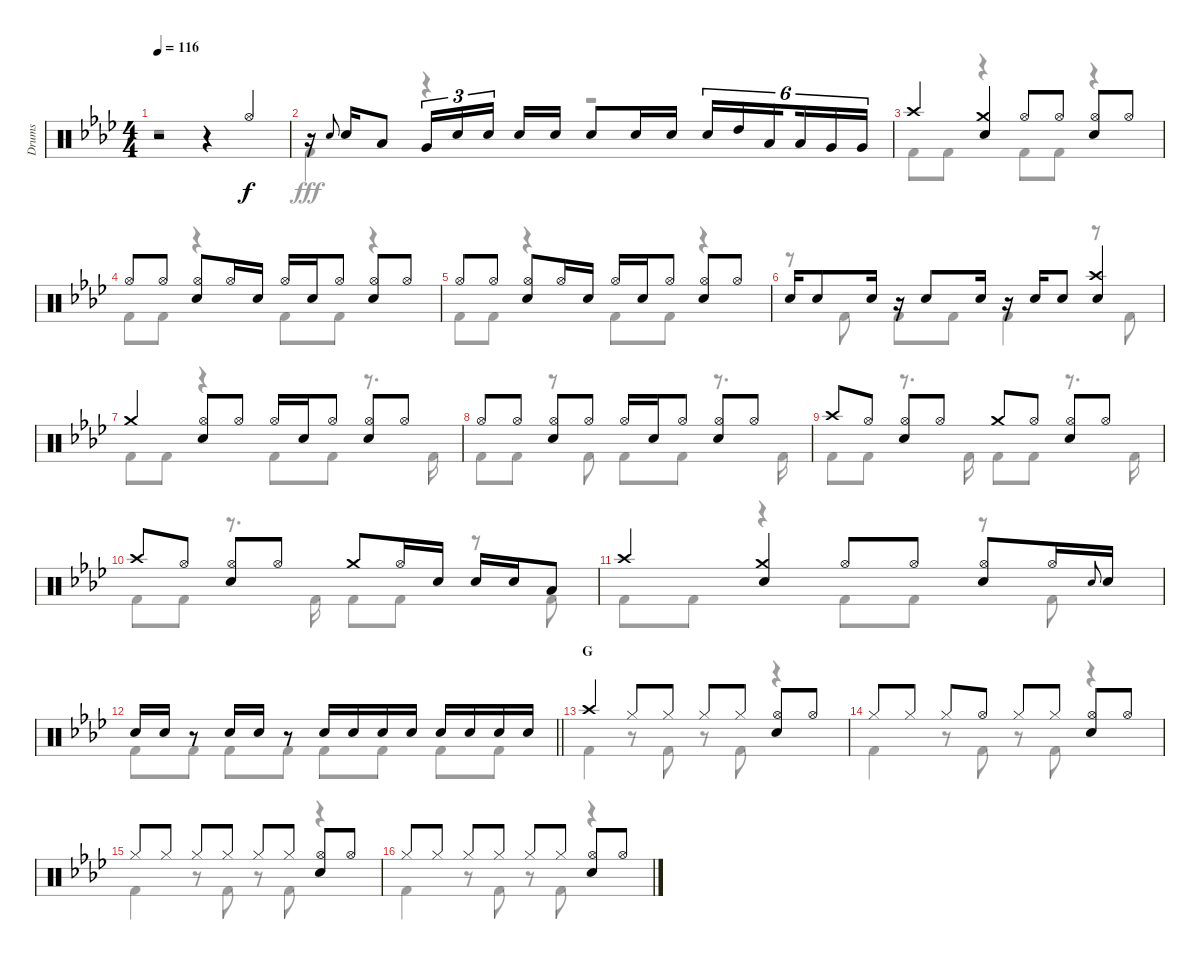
\track ("Drums" "Drums") {instrument percussion}
\staff {score}
\articulation defaults
\voice
\ts (4 4)
\tempo 116
\clef neutral
\ks ab
r.2{dy f} r.4 "Hi-Hat (open)".4 |
r.16 "Snare (hit) 2".8{gr onbeat} "Snare (hit) 2".16 "Low Tom (hit)".8 "Very Low Tom (hit)".16{tu (3 2)} "Snare (hit) 2".16{tu (3 2)} "Snare (hit) 2".16{tu (3 2) beam splitsecondary} "Snare (hit) 2".16 "Snare (hit) 2".16 "Snare (hit) 2".8 "Snare (hit) 2".16 "Snare (hit) 2".16 "Snare (hit) 2".16{tu (6 4)} "High Tom (hit)".16{tu (6 4)} "Low Tom (hit)".16{tu (6 4) beam splitsecondary} "Low Tom (hit)".16{tu (6 4)} "Very Low Tom (hit)".16{tu (6 4)} "Very Low Tom (hit)".16{tu (6 4)} |
"Crash high (hit)".4 ("Crash medium (hit)" "Snare (hit) 2").4 "Hi-Hat (open)".8 "Hi-Hat (open)".8 ("Hi-Hat (open)" "Snare (hit) 2").8 "Hi-Hat (open)".8 |
"Hi-Hat (open)".8 "Hi-Hat (open)".8 ("Hi-Hat (open)" "Snare (hit) 2").8 "Hi-Hat (open)".16 "Snare (hit) 2".16 "Hi-Hat (open)".16 "Snare (hit) 2".16 "Hi-Hat (open)".8 ("Hi-Hat (open)" "Snare (hit) 2").8 "Hi-Hat (open)".8 |
"Hi-Hat (open)".8 "Hi-Hat (open)".8 ("Hi-Hat (open)" "Snare (hit) 2").8 "Hi-Hat (open)".16 "Snare (hit) 2".16 "Hi-Hat (open)".16 "Snare (hit) 2".16 "Hi-Hat (open)".8 ("Hi-Hat (open)" "Snare (hit) 2").8 "Hi-Hat (open)".8 |
"Snare (hit) 2".16 "Snare (hit) 2".8 "Snare (hit) 2".16 r.16 "Snare (hit) 2".8 "Snare (hit) 2".16 r.16 "Snare (hit) 2".16 "Snare (hit) 2".8 ("Crash high (hit)" "Snare (hit) 2").4 |
"Crash medium (hit)".4 ("Hi-Hat (open)" "Snare (hit) 2").8 "Hi-Hat (open)".8 "Hi-Hat (open)".16 "Snare (hit) 2".16 "Hi-Hat (open)".8 ("Hi-Hat (open)" "Snare (hit) 2").8 "Hi-Hat (open)".8 |
"Hi-Hat (open)".8 "Hi-Hat (open)".8 ("Hi-Hat (open)" "Snare (hit) 2").8 "Hi-Hat (open)".8 "Hi-Hat (open)".16 "Snare (hit) 2".16 "Hi-Hat (open)".8 ("Hi-Hat (open)" "Snare (hit) 2").8 "Hi-Hat (open)".8 |
"Crash high (hit)".8 "Hi-Hat (open)".8 ("Hi-Hat (open)" "Snare (hit) 2").8 "Hi-Hat (open)".8 "Crash medium (hit)".8 "Hi-Hat (open)".8 ("Hi-Hat (open)" "Snare (hit) 2").8 "Hi-Hat (open)".8 |
"Crash high (hit)".8 "Hi-Hat (open)".8 ("Hi-Hat (open)" "Snare (hit) 2").8 "Hi-Hat (open)".8 "Crash medium (hit)".8 "Hi-Hat (open)".16 "Snare (hit) 2".16 "Snare (hit) 2".16 "Snare (hit) 2".16 "Low Tom (hit)".8 |
"Crash high (hit)".4 ("Crash medium (hit)" "Snare (hit) 2").4 "Hi-Hat (open)".8 "Hi-Hat (open)".8 ("Hi-Hat (open)" "Snare (hit) 2").8 "Hi-Hat (open)".16 "Snare (hit) 2".8{gr onbeat} "Snare (hit) 2".16 |
\barLineRight lightlight "Snare (hit) 2".16 "Snare (hit) 2".16
r.8 "Snare (hit) 2".16 "Snare (hit) 2".16 r.8 "Snare (hit) 2".16 "Snare (hit) 2".16 "Snare (hit) 2".16 "Snare (hit) 2".16 "Snare (hit) 2".16 "Snare (hit) 2".16 "Snare (hit) 2".16 "Snare (hit) 2".16 |
\section ("" "G")
"Crash high (hit)".4 "Hi-Hat (closed)".8 "Hi-Hat (closed)".8 "Hi-Hat (closed)".8 "Hi-Hat (closed)".8 ("Hi-Hat (open)" "Snare (hit) 2").8 "Hi-Hat (open)".8 |
"Hi-Hat (closed)".8 "Hi-Hat (closed)".8 "Hi-Hat (closed)".8 "Hi-Hat (open)".8 "Hi-Hat (closed)".8 "Hi-Hat (closed)".8 ("Hi-Hat (open)" "Snare (hit) 2").8 "Hi-Hat (open)".8 |
"Hi-Hat (closed)".8 "Hi-Hat (closed)".8 "Hi-Hat (closed)".8 "Hi-Hat (closed)".8 "Hi-Hat (closed)".8 "Hi-Hat (closed)".8 ("Hi-Hat (open)" "Snare (hit) 2").8 "Hi-Hat (open)".8 |
"Hi-Hat (closed)".8 "Hi-Hat (closed)".8 "Hi-Hat (closed)".8 "Hi-Hat (closed)".8 "Hi-Hat (closed)".8 "Hi-Hat (closed)".8 ("Hi-Hat (open)" "Snare (hit) 2").8 "Hi-Hat (open)".8
\voice
\clef neutral
\ottava regular
\simile none
\ks ab
r.1{dy fff} |
"Kick (hit) 2".4 r.4 r.2 |
"Kick (hit) 2".8 "Kick (hit) 2".8 r.4 "Kick (hit) 2".8 "Kick (hit) 2".8 r.4 |
"Kick (hit) 2".8 "Kick (hit) 2".8 r.4 "Kick (hit) 2".8 "Kick (hit) 2".8 r.4 |
"Kick (hit) 2".8 "Kick (hit) 2".8 r.4 "Kick (hit) 2".8 "Kick (hit) 2".8 r.4 |
r.8 "Kick (hit) 2".8 "Kick (hit) 2".8 "Kick (hit) 2".8 "Kick (hit) 2".4 r.8 "Kick (hit) 2".8 |
"Kick (hit) 2".8 "Kick (hit) 2".8 r.4 "Kick (hit) 2".8 "Kick (hit) 2".8 r.8{d} "Kick (hit) 2".16 |
"Kick (hit) 2".8 "Kick (hit) 2".8 r.8 "Kick (hit) 2".8 "Kick (hit) 2".8 "Kick (hit) 2".8 r.8{d} "Kick (hit) 2".16 |
"Kick (hit) 2".8 "Kick (hit) 2".8 r.8{d} "Kick (hit) 2".16 "Kick (hit) 2".8 "Kick (hit) 2".8 r.8{d} "Kick (hit) 2".16 |
"Kick (hit) 2".8 "Kick (hit) 2".8 r.8{d} "Kick (hit) 2".16 "Kick (hit) 2".8 "Kick (hit) 2".8 r.8 "Kick (hit) 2".8 |
"Kick (hit) 2".8 "Kick (hit) 2".8 r.4 "Kick (hit) 2".8 "Kick (hit) 2".8 r.8 "Kick (hit) 2".8 |
\barLineRight lightlight "Kick (hit) 2".8 "Kick (hit) 2".8 "Kick (hit) 2".8 "Kick (hit) 2".8 "Kick (hit) 2".8 "Kick (hit) 2".8 "Kick (hit) 2".8 "Kick (hit) 2".8
|
"Kick (hit) 2".4 r.8 "Kick (hit) 2".8 r.8 "Kick (hit) 2".8 r.4 |
"Kick (hit) 2".4 r.8 "Kick (hit) 2".8 r.8 "Kick (hit) 2".8 r.4 |
"Kick (hit) 2".4 r.8 "Kick (hit) 2".8 r.8 "Kick (hit) 2".8 r.4 |
"Kick (hit) 2".4 r.8 "Kick (hit) 2".8 r.8 "Kick (hit) 2".8 r.4
